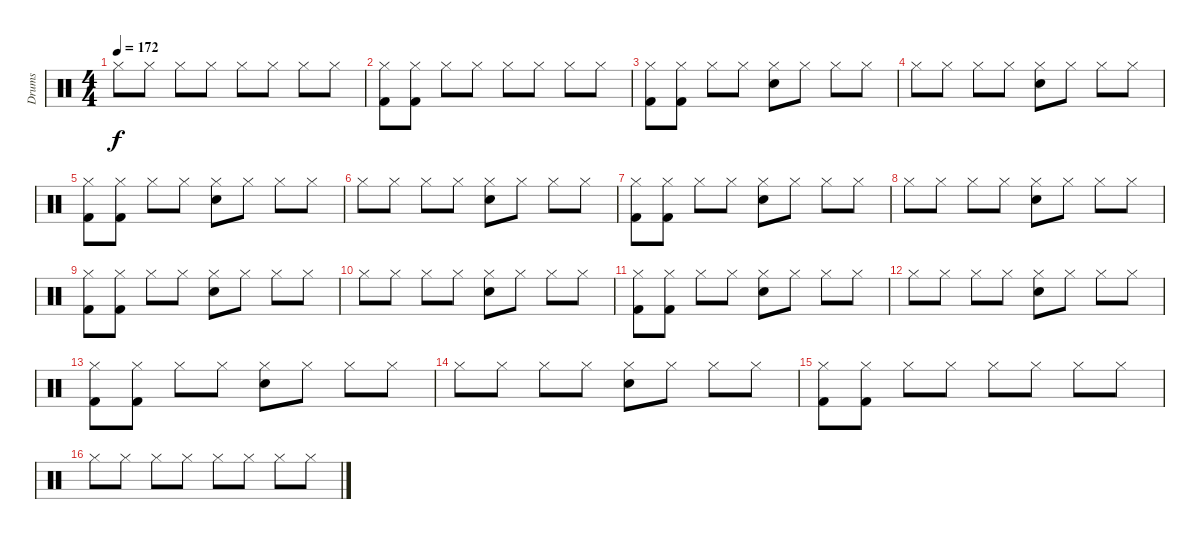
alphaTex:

\track ("Drums" "Drums") {instrument percussion}
\staff {score}
\articulation defaults
\ts (4 4)
\tempo 172
\clef neutral
\ks c "Hi-Hat (closed)".8{dy f} "Hi-Hat (closed)".8 "Hi-Hat (closed)".8 "Hi-Hat (closed)".8 "Hi-Hat (closed)".8 "Hi-Hat (closed)".8 "Hi-Hat (closed)".8 "Hi-Hat (closed)".8
|
("Hi-Hat (closed)" "Kick (hit) 2").8 ("Hi-Hat (closed)" "Kick (hit) 2").8 "Hi-Hat (closed)".8 "Hi-Hat (closed)".8 "Hi-Hat (closed)".8 "Hi-Hat (closed)".8 "Hi-Hat (closed)".8 "Hi-Hat (closed)".8 |
("Hi-Hat (closed)" "Kick (hit) 2").8 ("Hi-Hat (closed)" "Kick (hit) 2").8 "Hi-Hat (closed)".8 "Hi-Hat (closed)".8 ("Hi-Hat (closed)" "Electric Snare (hit)").8 "Hi-Hat (closed)".8 "Hi-Hat (closed)".8 "Hi-Hat (closed)".8 |
"Hi-Hat (closed)".8 "Hi-Hat (closed)".8 "Hi-Hat (closed)".8 "Hi-Hat (closed)".8 ("Hi-Hat (closed)" "Electric Snare (hit)").8 "Hi-Hat (closed)".8 "Hi-Hat (closed)".8 "Hi-Hat (closed)".8 |
("Hi-Hat (closed)" "Kick (hit) 2").8 ("Hi-Hat (closed)" "Kick (hit) 2").8 "Hi-Hat (closed)".8 "Hi-Hat (closed)".8 ("Hi-Hat (closed)" "Electric Snare (hit)").8 "Hi-Hat (closed)".8 "Hi-Hat (closed)".8 "Hi-Hat (closed)".8 |
"Hi-Hat (closed)".8 "Hi-Hat (closed)".8 "Hi-Hat (closed)".8 "Hi-Hat (closed)".8 ("Hi-Hat (closed)" "Electric Snare (hit)").8 "Hi-Hat (closed)".8 "Hi-Hat (closed)".8 "Hi-Hat (closed)".8 |
("Hi-Hat (closed)" "Kick (hit) 2").8 ("Hi-Hat (closed)" "Kick (hit) 2").8 "Hi-Hat (closed)".8 "Hi-Hat (closed)".8 ("Hi-Hat (closed)" "Electric Snare (hit)").8 "Hi-Hat (closed)".8 "Hi-Hat (closed)".8 "Hi-Hat (closed)".8 |
"Hi-Hat (closed)".8 "Hi-Hat (closed)".8 "Hi-Hat (closed)".8 "Hi-Hat (closed)".8 ("Hi-Hat (closed)" "Electric Snare (hit)").8 "Hi-Hat (closed)".8 "Hi-Hat (closed)".8 "Hi-Hat (closed)".8 |
("Hi-Hat (closed)" "Kick (hit) 2").8 ("Hi-Hat (closed)" "Kick (hit) 2").8 "Hi-Hat (closed)".8 "Hi-Hat (closed)".8 ("Hi-Hat (closed)" "Electric Snare (hit)").8 "Hi-Hat (closed)".8 "Hi-Hat (closed)".8 "Hi-Hat (closed)".8 |
"Hi-Hat (closed)".8 "Hi-Hat (closed)".8 "Hi-Hat (closed)".8 "Hi-Hat (closed)".8 ("Hi-Hat (closed)" "Electric Snare (hit)").8 "Hi-Hat (closed)".8 "Hi-Hat (closed)".8 "Hi-Hat (closed)".8 |
("Hi-Hat (closed)" "Kick (hit) 2").8 ("Hi-Hat (closed)" "Kick (hit) 2").8 "Hi-Hat (closed)".8 "Hi-Hat (closed)".8 ("Hi-Hat (closed)" "Electric Snare (hit)").8 "Hi-Hat (closed)".8 "Hi-Hat (closed)".8 "Hi-Hat (closed)".8 |
"Hi-Hat (closed)".8 "Hi-Hat (closed)".8 "Hi-Hat (closed)".8 "Hi-Hat (closed)".8 ("Hi-Hat (closed)" "Electric Snare (hit)").8 "Hi-Hat (closed)".8 "Hi-Hat (closed)".8 "Hi-Hat (closed)".8 |
("Hi-Hat (closed)" "Kick (hit) 2").8 ("Hi-Hat (closed)" "Kick (hit) 2").8 "Hi-Hat (closed)".8 "Hi-Hat (closed)".8 ("Hi-Hat (closed)" "Electric Snare (hit)").8 "Hi-Hat (closed)".8 "Hi-Hat (closed)".8 "Hi-Hat (closed)".8 |
"Hi-Hat (closed)".8 "Hi-Hat (closed)".8 "Hi-Hat (closed)".8 "Hi-Hat (closed)".8 ("Hi-Hat (closed)" "Electric Snare (hit)").8 "Hi-Hat (closed)".8 "Hi-Hat (closed)".8 "Hi-Hat (closed)".8 |
("Hi-Hat (closed)" "Kick (hit) 2").8 ("Hi-Hat (closed)" "Kick (hit) 2").8 "Hi-Hat (closed)".8 "Hi-Hat (closed)".8 "Hi-Hat (closed)".8 "Hi-Hat (closed)".8 "Hi-Hat (closed)".8 "Hi-Hat (closed)".8 |
"Hi-Hat (closed)".8 "Hi-Hat (closed)".8 "Hi-Hat (closed)".8 "Hi-Hat (closed)".8 "Hi-Hat (closed)".8 "Hi-Hat (closed)".8 "Hi-Hat (closed)".8 "Hi-Hat (closed)".8
